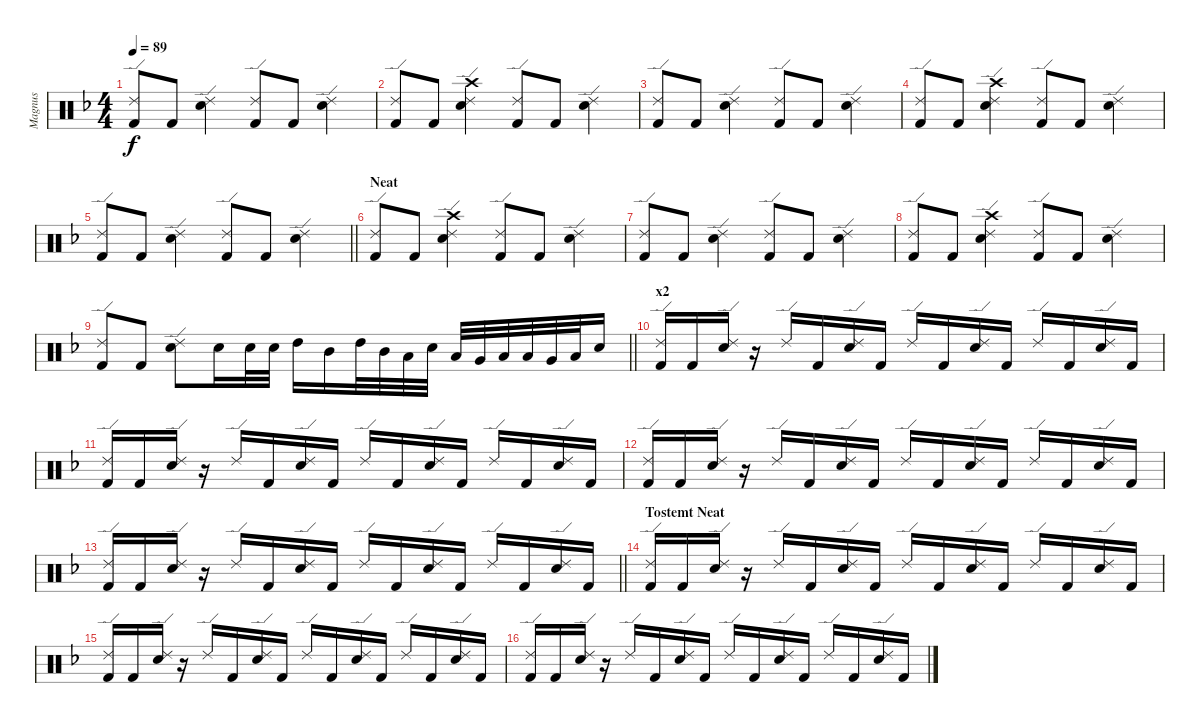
\track ("Magnus" "Magnus") {instrument percussion}
\staff {score}
\articulation defaults
\ts (4 4)
\tempo 89
\clef neutral
\ks dminor
("Ride (edge) 2" "Kick (hit) 2").8{dy f} "Kick (hit) 2".8 ("Ride (edge) 2" "Snare (hit) 2").4 ("Ride (edge) 2" "Kick (hit) 2").8 "Kick (hit) 2".8 ("Ride (edge) 2" "Snare (hit) 2").4 |
("Ride (edge) 2" "Kick (hit) 2").8 "Kick (hit) 2".8 ("Crash high (hit)" "Ride (edge) 2" "Snare (hit) 2").4 ("Ride (edge) 2" "Kick (hit) 2").8 "Kick (hit) 2".8 ("Ride (edge) 2" "Snare (hit) 2").4 |
("Ride (edge) 2" "Kick (hit) 2").8 "Kick (hit) 2".8 ("Ride (edge) 2" "Snare (hit) 2").4 ("Ride (edge) 2" "Kick (hit) 2").8 "Kick (hit) 2".8 ("Ride (edge) 2" "Snare (hit) 2").4 |
("Ride (edge) 2" "Kick (hit) 2").8 "Kick (hit) 2".8 ("Crash high (hit)" "Ride (edge) 2" "Snare (hit) 2").4 ("Ride (edge) 2" "Kick (hit) 2").8 "Kick (hit) 2".8 ("Ride (edge) 2" "Snare (hit) 2").4 |
\barLineRight lightlight
("Ride (edge) 2" "Kick (hit) 2").8 "Kick (hit) 2".8 ("Ride (edge) 2" "Snare (hit) 2").4 ("Ride (edge) 2" "Kick (hit) 2").8 "Kick (hit) 2".8 ("Ride (edge) 2" "Snare (hit) 2").4 |
\section ("" "Neat")
("Ride (edge) 2" "Kick (hit) 2").8 "Kick (hit) 2".8 ("Crash high (hit)" "Ride (edge) 2" "Snare (hit) 2").4 ("Ride (edge) 2" "Kick (hit) 2").8 "Kick (hit) 2".8 ("Ride (edge) 2" "Snare (hit) 2").4 |
("Ride (edge) 2" "Kick (hit) 2").8 "Kick (hit) 2".8 ("Ride (edge) 2" "Snare (hit) 2").4 ("Ride (edge) 2" "Kick (hit) 2").8 "Kick (hit) 2".8 ("Ride (edge) 2" "Snare (hit) 2").4 |
("Ride (edge) 2" "Kick (hit) 2").8 "Kick (hit) 2".8 ("Crash high (hit)" "Ride (edge) 2" "Snare (hit) 2").4 ("Ride (edge) 2" "Kick (hit) 2").8 "Kick (hit) 2".8 ("Ride (edge) 2" "Snare (hit) 2").4 |
\barLineRight lightlight
("Ride (edge) 2" "Kick (hit) 2").8 "Kick (hit) 2".8 ("Ride (edge) 2" "Snare (hit) 2").8 "Snare (hit) 2".16 "Snare (hit) 2".32 "Snare (hit) 2".32 "High Tom (hit)".16 "Mid Tom (hit)".16 "High Tom (hit)".32 "Mid Tom (hit)".32 "Low Tom (hit)".32 "Snare (hit) 2".32 "Low Tom (hit)".32 "Very Low Tom (hit)".32 "Low Tom (hit)".32 "Low Floor Tom (hit)".32 "Very Low Tom (hit)".32 "Low Floor Tom (hit)".32 "Snare (hit) 2".16 |
\section ("" "x2")
("Ride (edge) 2" "Kick (hit) 2").16 "Kick (hit) 2".16 ("Ride (edge) 2" "Snare (hit) 2").16 r.16 "Ride (edge) 2".16 "Kick (hit) 2".16 ("Ride (edge) 2" "Snare (hit) 2").16 "Kick (hit) 2".16 "Ride (edge) 2".16 "Kick (hit) 2".16 ("Ride (edge) 2" "Snare (hit) 2").16 "Kick (hit) 2".16 "Ride (edge) 2".16 "Kick (hit) 2".16 ("Ride (edge) 2" "Snare (hit) 2").16 "Kick (hit) 2".16 |
("Ride (edge) 2" "Kick (hit) 2").16 "Kick (hit) 2".16 ("Ride (edge) 2" "Snare (hit) 2").16 r.16 "Ride (edge) 2".16 "Kick (hit) 2".16 ("Ride (edge) 2" "Snare (hit) 2").16 "Kick (hit) 2".16 "Ride (edge) 2".16 "Kick (hit) 2".16 ("Ride (edge) 2" "Snare (hit) 2").16 "Kick (hit) 2".16 "Ride (edge) 2".16 "Kick (hit) 2".16 ("Ride (edge) 2" "Snare (hit) 2").16 "Kick (hit) 2".16 |
("Ride (edge) 2" "Kick (hit) 2").16 "Kick (hit) 2".16 ("Ride (edge) 2" "Snare (hit) 2").16 r.16 "Ride (edge) 2".16 "Kick (hit) 2".16 ("Ride (edge) 2" "Snare (hit) 2").16 "Kick (hit) 2".16 "Ride (edge) 2".16 "Kick (hit) 2".16 ("Ride (edge) 2" "Snare (hit) 2").16 "Kick (hit) 2".16 "Ride (edge) 2".16 "Kick (hit) 2".16 ("Ride (edge) 2" "Snare (hit) 2").16 "Kick (hit) 2".16 |
\barLineRight lightlight
("Ride (edge) 2" "Kick (hit) 2").16 "Kick (hit) 2".16 ("Ride (edge) 2" "Snare (hit) 2").16 r.16 "Ride (edge) 2".16 "Kick (hit) 2".16 ("Ride (edge) 2" "Snare (hit) 2").16 "Kick (hit) 2".16 "Ride (edge) 2".16 "Kick (hit) 2".16 ("Ride (edge) 2" "Snare (hit) 2").16 "Kick (hit) 2".16 "Ride (edge) 2".16 "Kick (hit) 2".16 ("Ride (edge) 2" "Snare (hit) 2").16 "Kick (hit) 2".16 |
\section ("" "Tostemt Neat")
("Ride (edge) 2" "Kick (hit) 2").16 "Kick (hit) 2".16 ("Ride (edge) 2" "Snare (hit) 2").16 r.16 "Ride (edge) 2".16 "Kick (hit) 2".16 ("Ride (edge) 2" "Snare (hit) 2").16 "Kick (hit) 2".16 "Ride (edge) 2".16 "Kick (hit) 2".16 ("Ride (edge) 2" "Snare (hit) 2").16 "Kick (hit) 2".16 "Ride (edge) 2".16 "Kick (hit) 2".16 ("Ride (edge) 2" "Snare (hit) 2").16 "Kick (hit) 2".16 |
("Ride (edge) 2" "Kick (hit) 2").16 "Kick (hit) 2".16 ("Ride (edge) 2" "Snare (hit) 2").16 r.16 "Ride (edge) 2".16 "Kick (hit) 2".16 ("Ride (edge) 2" "Snare (hit) 2").16 "Kick (hit) 2".16 "Ride (edge) 2".16 "Kick (hit) 2".16 ("Ride (edge) 2" "Snare (hit) 2").16 "Kick (hit) 2".16 "Ride (edge) 2".16 "Kick (hit) 2".16 ("Ride (edge) 2" "Snare (hit) 2").16 "Kick (hit) 2".16 |
("Ride (edge) 2" "Kick (hit) 2").16 "Kick (hit) 2".16 ("Ride (edge) 2" "Snare (hit) 2").16 r.16 "Ride (edge) 2".16 "Kick (hit) 2".16 ("Ride (edge) 2" "Snare (hit) 2").16 "Kick (hit) 2".16 "Ride (edge) 2".16 "Kick (hit) 2".16 ("Ride (edge) 2" "Snare (hit) 2").16 "Kick (hit) 2".16 "Ride (edge) 2".16 "Kick (hit) 2".16 ("Ride (edge) 2" "Snare (hit) 2").16 "Kick (hit) 2".16
